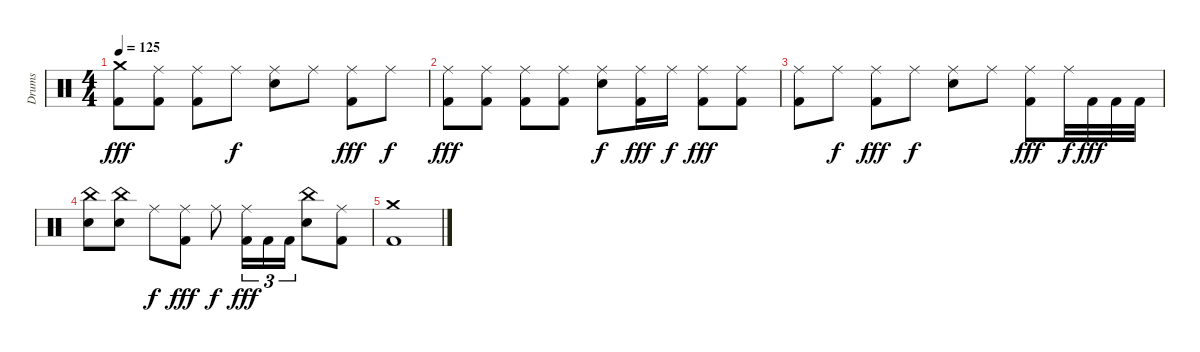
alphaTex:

\track ("Drums" "Drums") {instrument percussion}
\staff {score}
\articulation defaults
\ts (4 4)
\tempo 125
\clef neutral
\ks c
("Crash medium (hit)" "Kick (hit) 2").8{dy fff} ("Ride (middle)" "Kick (hit) 2").8 ("Ride (middle)" "Kick (hit) 2").8 "Ride (middle)".8{dy f} ("Ride (middle)" "Electric Snare (hit)").8 "Ride (middle)".8 ("Ride (middle)" "Kick (hit) 2").8{dy fff} "Ride (middle)".8{dy f} |
("Ride (middle)" "Kick (hit) 2").8{dy fff} ("Ride (middle)" "Kick (hit) 2").8 ("Ride (middle)" "Kick (hit) 2").8 ("Ride (middle)" "Kick (hit) 2").8 ("Ride (middle)" "Electric Snare (hit)").8{dy f} ("Ride (middle)" "Kick (hit) 2").16{dy fff} "Ride (middle)".16{dy f} ("Ride (middle)" "Kick (hit) 2").8{dy fff} ("Ride (middle)" "Kick (hit) 2").8 |
("Ride (middle)" "Kick (hit) 2").8 "Ride (middle)".8{dy f} ("Ride (middle)" "Kick (hit) 2").8{dy fff} "Ride (middle)".8{dy f} ("Ride (middle)" "Electric Snare (hit)").8 "Ride (middle)".8 ("Ride (middle)" "Kick (hit) 2").8{dy fff} "Ride (middle)".32{dy f} "Kick (hit) 2".32{dy fff} "Kick (hit) 2".32 "Kick (hit) 2".32 |
("China (hit)" "Electric Snare (hit)").8 ("China (hit)" "Electric Snare (hit)").8 "Ride (middle)".8{dy f} ("Ride (middle)" "Kick (hit) 2").8{dy fff} "Ride (middle)".8{dy f} ("Ride (middle)" "Kick (hit) 2").16{tu (3 2) dy fff} "Kick (hit) 2".16{tu (3 2)} "Kick (hit) 2".16{tu (3 2)} ("China (hit)" "Electric Snare (hit)").8 ("Ride (middle)" "Kick (hit) 2").8 |
("Crash medium (hit)" "Kick (hit) 2").1
